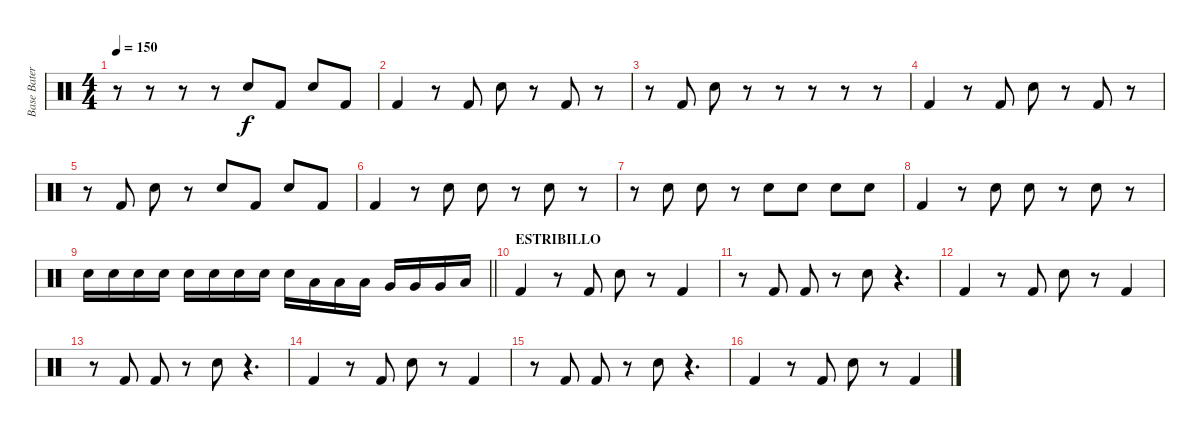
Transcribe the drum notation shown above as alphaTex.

\track ("Base Batería" "Base Bater") {instrument percussion}
\staff {score}
\articulation defaults
\ts (4 4)
\tempo 150
\clef neutral
\ks c
r.8{dy f} r.8 r.8 r.8 "Electric Snare (hit)".8 "Kick (hit) 2".8 "Electric Snare (hit)".8 "Kick (hit) 2".8 |
"Kick (hit) 2".4 r.8 "Kick (hit) 2".8 "Electric Snare (hit)".8 r.8 "Kick (hit) 2".8 r.8 |
r.8 "Kick (hit) 2".8 "Electric Snare (hit)".8 r.8 r.8 r.8 r.8 r.8 |
"Kick (hit) 2".4 r.8 "Kick (hit) 2".8 "Electric Snare (hit)".8 r.8 "Kick (hit) 2".8 r.8 |
r.8 "Kick (hit) 2".8 "Electric Snare (hit)".8 r.8 "Electric Snare (hit)".8 "Kick (hit) 2".8 "Electric Snare (hit)".8 "Kick (hit) 2".8 |
"Kick (hit) 2".4 r.8 "Electric Snare (hit)".8 "Electric Snare (hit)".8 r.8 "Electric Snare (hit)".8 r.8 |
r.8 "Electric Snare (hit)".8 "Electric Snare (hit)".8 r.8 "Electric Snare (hit)".8 "Electric Snare (hit)".8 "Electric Snare (hit)".8 "Electric Snare (hit)".8 |
"Kick (hit) 2".4 r.8 "Electric Snare (hit)".8 "Electric Snare (hit)".8 r.8 "Electric Snare (hit)".8 r.8 |
\barLineRight lightlight "Electric Snare (hit)".16 "Electric Snare (hit)".16 "Electric Snare (hit)".16 "Electric Snare (hit)".16 "Electric Snare (hit)".16 "Electric Snare (hit)".16 "Electric Snare (hit)".16 "Electric Snare (hit)".16 "Electric Snare (hit)".16 "Low Tom (hit)".16 "Low Tom (hit)".16 "Low Tom (hit)".16 "Very Low Tom (hit)".16 "Very Low Tom (hit)".16 "Very Low Tom (hit)".16 "Low Floor Tom (hit)".16
|
\section ("" "ESTRIBILLO")
"Kick (hit) 2".4 r.8 "Kick (hit) 2".8 "Electric Snare (hit)".8 r.8 "Kick (hit) 2".4 |
r.8 "Kick (hit) 2".8 "Kick (hit) 2".8 r.8 "Electric Snare (hit)".8 r.4{d} |
"Kick (hit) 2".4 r.8 "Kick (hit) 2".8 "Electric Snare (hit)".8 r.8 "Kick (hit) 2".4 |
r.8 "Kick (hit) 2".8 "Kick (hit) 2".8 r.8 "Electric Snare (hit)".8 r.4{d} |
"Kick (hit) 2".4 r.8 "Kick (hit) 2".8 "Electric Snare (hit)".8 r.8 "Kick (hit) 2".4 |
r.8 "Kick (hit) 2".8 "Kick (hit) 2".8 r.8 "Electric Snare (hit)".8 r.4{d} |
"Kick (hit) 2".4 r.8 "Kick (hit) 2".8 "Electric Snare (hit)".8 r.8 "Kick (hit) 2".4
